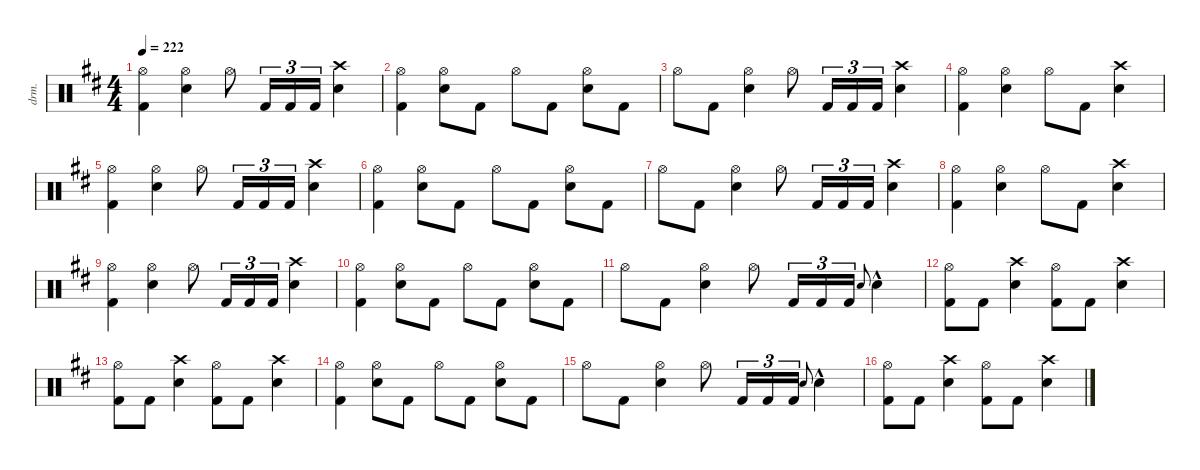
\defaultSystemsLayout 4
\hideDynamics
\bracketExtendMode nobrackets
\otherSystemsTrackNameOrientation horizontal
\track ("Lars Ulrich" "drm.") {defaultSystemsLayout 4 instrument percussion}
\staff {score}
\articulation defaults
\ts (4 4)
\tempo 222
\clef neutral
\ks bminor
("Hi-Hat (open)"{acc forcenatural} "Kick (hit) 2"{acc forcenatural}).4{dy f} ("Hi-Hat (open)"{acc forcenatural} "Snare (hit) 2"{acc forcenatural}).4 "Hi-Hat (open)"{acc forcenatural}.8 "Kick (hit) 2"{acc forcenatural}.16{tu (3 2)} "Kick (hit) 2"{acc forcenatural}.16{tu (3 2)} "Kick (hit) 2"{acc forcenatural}.16{tu (3 2)} ("Crash high (hit)"{acc forcenatural} "Snare (hit) 2"{acc forcenatural}).4 |
("Hi-Hat (open)"{acc forcenatural} "Kick (hit) 2"{acc forcenatural}).4 ("Hi-Hat (open)"{acc forcenatural} "Snare (hit) 2"{acc forcenatural}).8 "Kick (hit) 2"{acc forcenatural}.8 "Hi-Hat (open)"{acc forcenatural}.8 "Kick (hit) 2"{acc forcenatural}.8 ("Hi-Hat (open)"{acc forcenatural} "Snare (hit) 2"{acc forcenatural}).8 "Kick (hit) 2"{acc forcenatural}.8 |
"Hi-Hat (open)"{acc forcenatural}.8 "Kick (hit) 2"{acc forcenatural}.8 ("Hi-Hat (open)"{acc forcenatural} "Snare (hit) 2"{acc forcenatural}).4 "Hi-Hat (open)"{acc forcenatural}.8 "Kick (hit) 2"{acc forcenatural}.16{tu (3 2)} "Kick (hit) 2"{acc forcenatural}.16{tu (3 2)} "Kick (hit) 2"{acc forcenatural}.16{tu (3 2)} ("Crash high (hit)"{acc forcenatural} "Snare (hit) 2"{acc forcenatural}).4 |
("Hi-Hat (open)"{acc forcenatural} "Kick (hit) 2"{acc forcenatural}).4 ("Hi-Hat (open)"{acc forcenatural} "Snare (hit) 2"{acc forcenatural}).4 "Hi-Hat (open)"{acc forcenatural}.8 "Kick (hit) 2"{acc forcenatural}.8 ("Crash high (hit)"{acc forcenatural} "Snare (hit) 2"{acc forcenatural}).4 |
("Hi-Hat (open)"{acc forcenatural} "Kick (hit) 2"{acc forcenatural}).4 ("Hi-Hat (open)"{acc forcenatural} "Snare (hit) 2"{acc forcenatural}).4 "Hi-Hat (open)"{acc forcenatural}.8 "Kick (hit) 2"{acc forcenatural}.16{tu (3 2)} "Kick (hit) 2"{acc forcenatural}.16{tu (3 2)} "Kick (hit) 2"{acc forcenatural}.16{tu (3 2)} ("Crash high (hit)"{acc forcenatural} "Snare (hit) 2"{acc forcenatural}).4 |
("Hi-Hat (open)"{acc forcenatural} "Kick (hit) 2"{acc forcenatural}).4 ("Hi-Hat (open)"{acc forcenatural} "Snare (hit) 2"{acc forcenatural}).8 "Kick (hit) 2"{acc forcenatural}.8 "Hi-Hat (open)"{acc forcenatural}.8 "Kick (hit) 2"{acc forcenatural}.8 ("Hi-Hat (open)"{acc forcenatural} "Snare (hit) 2"{acc forcenatural}).8 "Kick (hit) 2"{acc forcenatural}.8 |
"Hi-Hat (open)"{acc forcenatural}.8 "Kick (hit) 2"{acc forcenatural}.8 ("Hi-Hat (open)"{acc forcenatural} "Snare (hit) 2"{acc forcenatural}).4 "Hi-Hat (open)"{acc forcenatural}.8 "Kick (hit) 2"{acc forcenatural}.16{tu (3 2)} "Kick (hit) 2"{acc forcenatural}.16{tu (3 2)} "Kick (hit) 2"{acc forcenatural}.16{tu (3 2)} ("Crash high (hit)"{acc forcenatural} "Snare (hit) 2"{acc forcenatural}).4 |
("Hi-Hat (open)"{acc forcenatural} "Kick (hit) 2"{acc forcenatural}).4 ("Hi-Hat (open)"{acc forcenatural} "Snare (hit) 2"{acc forcenatural}).4 "Hi-Hat (open)"{acc forcenatural}.8 "Kick (hit) 2"{acc forcenatural}.8 ("Crash high (hit)"{acc forcenatural} "Snare (hit) 2"{acc forcenatural}).4 |
("Hi-Hat (open)"{acc forcenatural} "Kick (hit) 2"{acc forcenatural}).4 ("Hi-Hat (open)"{acc forcenatural} "Snare (hit) 2"{acc forcenatural}).4 "Hi-Hat (open)"{acc forcenatural}.8 "Kick (hit) 2"{acc forcenatural}.16{tu (3 2)} "Kick (hit) 2"{acc forcenatural}.16{tu (3 2)} "Kick (hit) 2"{acc forcenatural}.16{tu (3 2)} ("Crash high (hit)"{acc forcenatural} "Snare (hit) 2"{acc forcenatural}).4 |
("Hi-Hat (open)"{acc forcenatural} "Kick (hit) 2"{acc forcenatural}).4 ("Hi-Hat (open)"{acc forcenatural} "Snare (hit) 2"{acc forcenatural}).8 "Kick (hit) 2"{acc forcenatural}.8 "Hi-Hat (open)"{acc forcenatural}.8 "Kick (hit) 2"{acc forcenatural}.8 ("Hi-Hat (open)"{acc forcenatural} "Snare (hit) 2"{acc forcenatural}).8 "Kick (hit) 2"{acc forcenatural}.8 |
"Hi-Hat (open)"{acc forcenatural}.8 "Kick (hit) 2"{acc forcenatural}.8 ("Hi-Hat (open)"{acc forcenatural} "Snare (hit) 2"{acc forcenatural}).4 "Hi-Hat (open)"{acc forcenatural}.8 "Kick (hit) 2"{acc forcenatural}.16{tu (3 2)} "Kick (hit) 2"{acc forcenatural}.16{tu (3 2)} "Kick (hit) 2"{acc forcenatural}.16{tu (3 2)} "Electric Snare (hit)"{acc forcenatural}.8{gr onbeat dy mp} "Snare (hit) 2"{hac acc forcenatural}.4{dy f} |
("Hi-Hat (open)"{acc forcenatural} "Kick (hit) 2"{acc forcenatural}).8 "Kick (hit) 2"{acc forcenatural}.8 ("Crash high (hit)"{acc forcenatural} "Snare (hit) 2"{acc forcenatural}).4 ("Hi-Hat (open)"{acc forcenatural} "Kick (hit) 2"{acc forcenatural}).8 "Kick (hit) 2"{acc forcenatural}.8 ("Crash high (hit)"{acc forcenatural} "Snare (hit) 2"{acc forcenatural}).4 |
("Hi-Hat (open)"{acc forcenatural} "Kick (hit) 2"{acc forcenatural}).8 "Kick (hit) 2"{acc forcenatural}.8 ("Crash high (hit)"{acc forcenatural} "Snare (hit) 2"{acc forcenatural}).4 ("Hi-Hat (open)"{acc forcenatural} "Kick (hit) 2"{acc forcenatural}).8 "Kick (hit) 2"{acc forcenatural}.8 ("Crash high (hit)"{acc forcenatural} "Snare (hit) 2"{acc forcenatural}).4 |
("Hi-Hat (open)"{acc forcenatural} "Kick (hit) 2"{acc forcenatural}).4 ("Hi-Hat (open)"{acc forcenatural} "Snare (hit) 2"{acc forcenatural}).8 "Kick (hit) 2"{acc forcenatural}.8 "Hi-Hat (open)"{acc forcenatural}.8 "Kick (hit) 2"{acc forcenatural}.8 ("Hi-Hat (open)"{acc forcenatural} "Snare (hit) 2"{acc forcenatural}).8 "Kick (hit) 2"{acc forcenatural}.8 |
"Hi-Hat (open)"{acc forcenatural}.8 "Kick (hit) 2"{acc forcenatural}.8 ("Hi-Hat (open)"{acc forcenatural} "Snare (hit) 2"{acc forcenatural}).4 "Hi-Hat (open)"{acc forcenatural}.8 "Kick (hit) 2"{acc forcenatural}.16{tu (3 2)} "Kick (hit) 2"{acc forcenatural}.16{tu (3 2)} "Kick (hit) 2"{acc forcenatural}.16{tu (3 2)} "Electric Snare (hit)"{acc forcenatural}.8{gr onbeat dy mp} "Snare (hit) 2"{hac acc forcenatural}.4{dy f} |
("Hi-Hat (open)"{acc forcenatural} "Kick (hit) 2"{acc forcenatural}).8 "Kick (hit) 2"{acc forcenatural}.8 ("Crash high (hit)"{acc forcenatural} "Snare (hit) 2"{acc forcenatural}).4 ("Hi-Hat (open)"{acc forcenatural} "Kick (hit) 2"{acc forcenatural}).8 "Kick (hit) 2"{acc forcenatural}.8 ("Crash high (hit)"{acc forcenatural} "Snare (hit) 2"{acc forcenatural}).4
